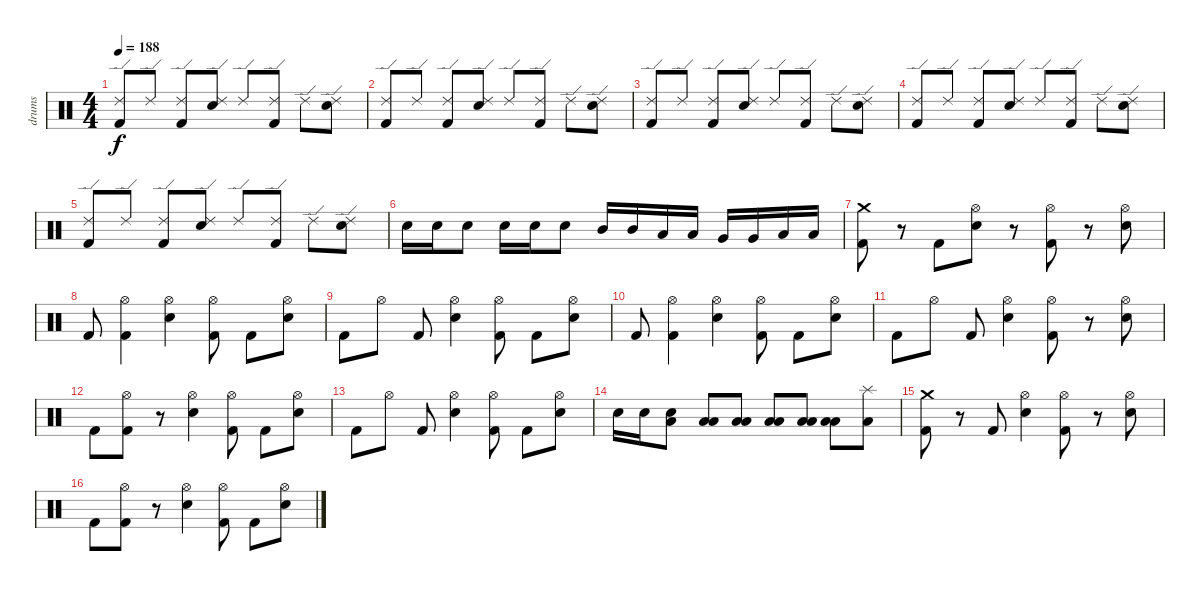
\track ("drums" "drums") {instrument percussion}
\staff {score}
\articulation defaults
\ts (4 4)
\tempo 188
\clef neutral
\ks c
("Ride (edge) 2" "Kick (hit) 2").8{dy f} "Ride (edge) 2".8 ("Ride (edge) 2" "Kick (hit) 2").8 ("Ride (edge) 2" "Electric Snare (hit)").8 "Ride (edge) 2".8 ("Ride (edge) 2" "Kick (hit) 2").8 "Ride (edge) 2".8 ("Ride (edge) 2" "Electric Snare (hit)").8 |
("Ride (edge) 2" "Kick (hit) 2").8 "Ride (edge) 2".8 ("Ride (edge) 2" "Kick (hit) 2").8 ("Ride (edge) 2" "Electric Snare (hit)").8 "Ride (edge) 2".8 ("Ride (edge) 2" "Kick (hit) 2").8 "Ride (edge) 2".8 ("Ride (edge) 2" "Electric Snare (hit)").8 |
("Ride (edge) 2" "Kick (hit) 2").8 "Ride (edge) 2".8 ("Ride (edge) 2" "Kick (hit) 2").8 ("Ride (edge) 2" "Electric Snare (hit)").8 "Ride (edge) 2".8 ("Ride (edge) 2" "Kick (hit) 2").8 "Ride (edge) 2".8 ("Ride (edge) 2" "Electric Snare (hit)").8 |
("Ride (edge) 2" "Kick (hit) 2").8 "Ride (edge) 2".8 ("Ride (edge) 2" "Kick (hit) 2").8 ("Ride (edge) 2" "Electric Snare (hit)").8 "Ride (edge) 2".8 ("Ride (edge) 2" "Kick (hit) 2").8 "Ride (edge) 2".8 ("Ride (edge) 2" "Electric Snare (hit)").8 |
("Ride (edge) 2" "Kick (hit) 2").8 "Ride (edge) 2".8 ("Ride (edge) 2" "Kick (hit) 2").8 ("Ride (edge) 2" "Electric Snare (hit)").8 "Ride (edge) 2".8 ("Ride (edge) 2" "Kick (hit) 2").8 "Ride (edge) 2".8 ("Ride (edge) 2" "Electric Snare (hit)").8 |
"Electric Snare (hit)".16 "Electric Snare (hit)".16 "Electric Snare (hit)".8 "Electric Snare (hit)".16 "Electric Snare (hit)".16 "Electric Snare (hit)".8 "Mid Tom (hit)".16 "Mid Tom (hit)".16 "Low Tom (hit)".16 "Low Tom (hit)".16 "Very Low Tom (hit)".16 "Very Low Tom (hit)".16 "Low Floor Tom (hit)".16 "Low Floor Tom (hit)".16 |
("Crash medium (hit)" "Kick (hit) 2").8 r.8 "Kick (hit) 2".8 ("Hi-Hat (open)" "Electric Snare (hit)").8 r.8 ("Hi-Hat (open)" "Kick (hit) 2").8 r.8 ("Hi-Hat (open)" "Electric Snare (hit)").8 |
"Kick (hit) 2".8 ("Hi-Hat (open)" "Kick (hit) 2").4 ("Hi-Hat (open)" "Electric Snare (hit)").4 ("Hi-Hat (open)" "Kick (hit) 2").8 "Kick (hit) 2".8 ("Hi-Hat (open)" "Electric Snare (hit)").8 |
"Kick (hit) 2".8 "Hi-Hat (open)".8 "Kick (hit) 2".8 ("Hi-Hat (open)" "Electric Snare (hit)").4 ("Hi-Hat (open)" "Kick (hit) 2").8 "Kick (hit) 2".8 ("Hi-Hat (open)" "Electric Snare (hit)").8 |
"Kick (hit) 2".8 ("Hi-Hat (open)" "Kick (hit) 2").4 ("Hi-Hat (open)" "Electric Snare (hit)").4 ("Hi-Hat (open)" "Kick (hit) 2").8 "Kick (hit) 2".8 ("Hi-Hat (open)" "Electric Snare (hit)").8 |
"Kick (hit) 2".8 "Hi-Hat (open)".8 "Kick (hit) 2".8 ("Hi-Hat (open)" "Electric Snare (hit)").4 ("Hi-Hat (open)" "Kick (hit) 2").8 r.8 ("Hi-Hat (open)" "Electric Snare (hit)").8 |
"Kick (hit) 2".8 ("Hi-Hat (open)" "Kick (hit) 2").8 r.8 ("Hi-Hat (open)" "Electric Snare (hit)").4 ("Hi-Hat (open)" "Kick (hit) 2").8 "Kick (hit) 2".8 ("Hi-Hat (open)" "Electric Snare (hit)").8 |
"Kick (hit) 2".8 "Hi-Hat (open)".8 "Kick (hit) 2".8 ("Hi-Hat (open)" "Electric Snare (hit)").4 ("Hi-Hat (open)" "Kick (hit) 2").8 "Kick (hit) 2".8 ("Hi-Hat (open)" "Electric Snare (hit)").8 |
"Electric Snare (hit)".16 "Electric Snare (hit)".16 ("Low Floor Tom (hit)" "Electric Snare (hit)").8 ("Low Floor Tom (hit)" "Low Tom (hit)").8 ("Low Floor Tom (hit)" "Low Tom (hit)").8 ("Low Floor Tom (hit)" "Low Tom (hit)").8 ("Low Floor Tom (hit)" "Low Tom (hit)").8 ("Low Floor Tom (hit)" "Low Tom (hit)").8 ("Splash (hit)" "Low Floor Tom (hit)").8 |
("Crash medium (hit)" "Kick (hit) 2").8 r.8 "Kick (hit) 2".8 ("Hi-Hat (open)" "Electric Snare (hit)").4 ("Hi-Hat (open)" "Kick (hit) 2").8 r.8 ("Hi-Hat (open)" "Electric Snare (hit)").8 |
"Kick (hit) 2".8 ("Hi-Hat (open)" "Kick (hit) 2").8 r.8 ("Hi-Hat (open)" "Electric Snare (hit)").4 ("Hi-Hat (open)" "Kick (hit) 2").8 "Kick (hit) 2".8 ("Hi-Hat (open)" "Electric Snare (hit)").8
